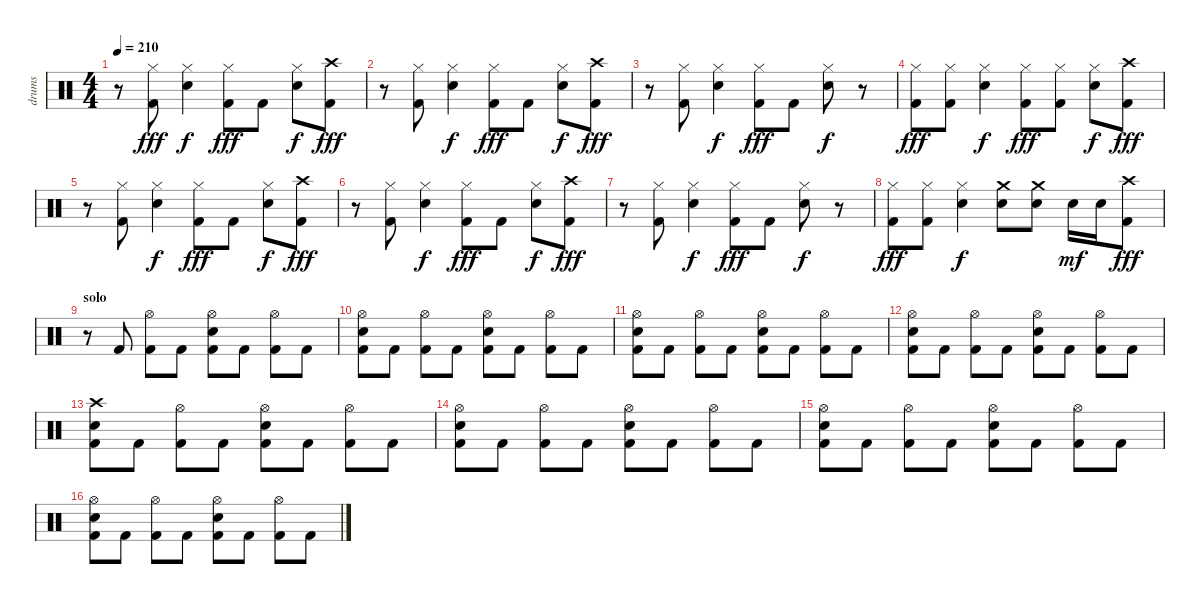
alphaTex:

\track ("drums" "drums") {instrument percussion}
\staff {score}
\articulation defaults
\ts (4 4)
\tempo 210
\clef neutral
\ks c
r.8{dy fff} ("Hi-Hat (closed)" "Kick (hit) 2").8 ("Hi-Hat (closed)" "Snare (hit) 2").4{dy f} ("Hi-Hat (closed)" "Kick (hit) 2").8{dy fff} "Kick (hit) 2".8 ("Hi-Hat (closed)" "Snare (hit) 2").8{dy f} ("Crash high (hit)" "Kick (hit) 2").8{dy fff} |
r.8 ("Hi-Hat (closed)" "Kick (hit) 2").8 ("Hi-Hat (closed)" "Snare (hit) 2").4{dy f} ("Hi-Hat (closed)" "Kick (hit) 2").8{dy fff} "Kick (hit) 2".8 ("Hi-Hat (closed)" "Snare (hit) 2").8{dy f} ("Crash high (hit)" "Kick (hit) 2").8{dy fff} |
r.8 ("Hi-Hat (closed)" "Kick (hit) 2").8 ("Hi-Hat (closed)" "Snare (hit) 2").4{dy f} ("Hi-Hat (closed)" "Kick (hit) 2").8{dy fff} "Kick (hit) 2".8 ("Hi-Hat (closed)" "Snare (hit) 2").8{dy f} r.8 |
("Hi-Hat (closed)" "Kick (hit) 2").8{dy fff} ("Hi-Hat (closed)" "Kick (hit) 2").8 ("Hi-Hat (closed)" "Snare (hit) 2").4{dy f} ("Hi-Hat (closed)" "Kick (hit) 2").8{dy fff} ("Hi-Hat (closed)" "Kick (hit) 2").8 ("Hi-Hat (closed)" "Snare (hit) 2").8{dy f} ("Crash high (hit)" "Kick (hit) 2").8{dy fff} |
r.8 ("Hi-Hat (closed)" "Kick (hit) 2").8 ("Hi-Hat (closed)" "Snare (hit) 2").4{dy f} ("Hi-Hat (closed)" "Kick (hit) 2").8{dy fff} "Kick (hit) 2".8 ("Hi-Hat (closed)" "Snare (hit) 2").8{dy f} ("Crash high (hit)" "Kick (hit) 2").8{dy fff} |
r.8 ("Hi-Hat (closed)" "Kick (hit) 2").8 ("Hi-Hat (closed)" "Snare (hit) 2").4{dy f} ("Hi-Hat (closed)" "Kick (hit) 2").8{dy fff} "Kick (hit) 2".8 ("Hi-Hat (closed)" "Snare (hit) 2").8{dy f} ("Crash high (hit)" "Kick (hit) 2").8{dy fff} |
r.8 ("Hi-Hat (closed)" "Kick (hit) 2").8 ("Hi-Hat (closed)" "Snare (hit) 2").4{dy f} ("Hi-Hat (closed)" "Kick (hit) 2").8{dy fff} "Kick (hit) 2".8 ("Hi-Hat (closed)" "Snare (hit) 2").8{dy f} r.8 |
("Hi-Hat (closed)" "Kick (hit) 2").8{dy fff} ("Hi-Hat (closed)" "Kick (hit) 2").8 ("Hi-Hat (closed)" "Snare (hit) 2").4{dy f} ("Crash medium (hit)" "Snare (hit) 2").8 ("Crash medium (hit)" "Snare (hit) 2").8 "Snare (hit) 2".16{dy mf} "Snare (hit) 2".16 ("Crash high (hit)" "Kick (hit) 2").8{dy fff} |
\section ("" "solo")
r.8 "Kick (hit) 2".8 ("Hi-Hat (open)" "Kick (hit) 2").8 "Kick (hit) 2".8 ("Hi-Hat (open)" "Snare (hit) 2" "Kick (hit) 2").8 "Kick (hit) 2".8 ("Hi-Hat (open)" "Kick (hit) 2").8 "Kick (hit) 2".8 |
("Hi-Hat (open)" "Snare (hit) 2" "Kick (hit) 2").8 "Kick (hit) 2".8 ("Hi-Hat (open)" "Kick (hit) 2").8 "Kick (hit) 2".8 ("Hi-Hat (open)" "Snare (hit) 2" "Kick (hit) 2").8 "Kick (hit) 2".8 ("Hi-Hat (open)" "Kick (hit) 2").8 "Kick (hit) 2".8 |
("Hi-Hat (open)" "Snare (hit) 2" "Kick (hit) 2").8 "Kick (hit) 2".8 ("Hi-Hat (open)" "Kick (hit) 2").8 "Kick (hit) 2".8 ("Hi-Hat (open)" "Snare (hit) 2" "Kick (hit) 2").8 "Kick (hit) 2".8 ("Hi-Hat (open)" "Kick (hit) 2").8 "Kick (hit) 2".8 |
("Hi-Hat (open)" "Snare (hit) 2" "Kick (hit) 2").8 "Kick (hit) 2".8 ("Hi-Hat (open)" "Kick (hit) 2").8 "Kick (hit) 2".8 ("Hi-Hat (open)" "Snare (hit) 2" "Kick (hit) 2").8 "Kick (hit) 2".8 ("Hi-Hat (open)" "Kick (hit) 2").8 "Kick (hit) 2".8 |
("Crash high (hit)" "Snare (hit) 2" "Kick (hit) 2").8 "Kick (hit) 2".8 ("Hi-Hat (open)" "Kick (hit) 2").8 "Kick (hit) 2".8 ("Hi-Hat (open)" "Snare (hit) 2" "Kick (hit) 2").8 "Kick (hit) 2".8 ("Hi-Hat (open)" "Kick (hit) 2").8 "Kick (hit) 2".8 |
("Hi-Hat (open)" "Snare (hit) 2" "Kick (hit) 2").8 "Kick (hit) 2".8 ("Hi-Hat (open)" "Kick (hit) 2").8 "Kick (hit) 2".8 ("Hi-Hat (open)" "Snare (hit) 2" "Kick (hit) 2").8 "Kick (hit) 2".8 ("Hi-Hat (open)" "Kick (hit) 2").8 "Kick (hit) 2".8 |
("Hi-Hat (open)" "Snare (hit) 2" "Kick (hit) 2").8 "Kick (hit) 2".8 ("Hi-Hat (open)" "Kick (hit) 2").8 "Kick (hit) 2".8 ("Hi-Hat (open)" "Snare (hit) 2" "Kick (hit) 2").8 "Kick (hit) 2".8 ("Hi-Hat (open)" "Kick (hit) 2").8 "Kick (hit) 2".8 |
("Hi-Hat (open)" "Snare (hit) 2" "Kick (hit) 2").8 "Kick (hit) 2".8 ("Hi-Hat (open)" "Kick (hit) 2").8 "Kick (hit) 2".8 ("Hi-Hat (open)" "Snare (hit) 2" "Kick (hit) 2").8 "Kick (hit) 2".8 ("Hi-Hat (open)" "Kick (hit) 2").8 "Kick (hit) 2".8
